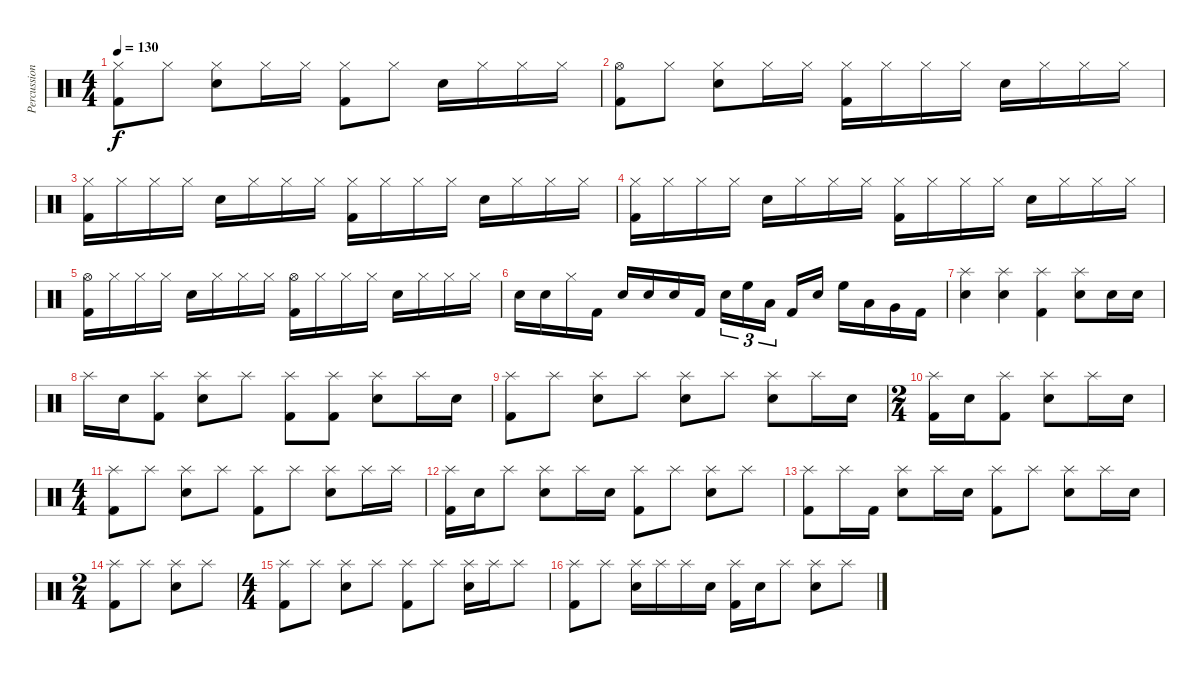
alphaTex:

\track ("Percussion" "Percussion") {instrument percussion}
\staff {score}
\articulation defaults
\ts (4 4)
\tempo 130
\clef neutral
\ks c
("Kick (hit) 2" "Hi-Hat (closed)").8{dy f} "Hi-Hat (closed)".8 ("Snare (hit) 2" "Hi-Hat (closed)").8 "Hi-Hat (closed)".16 "Hi-Hat (closed)".16 ("Kick (hit) 2" "Hi-Hat (closed)").8 "Hi-Hat (closed)".8 "Snare (hit) 2".16 "Hi-Hat (closed)".16 "Hi-Hat (closed)".16 "Hi-Hat (closed)".16 |
("Kick (hit) 2" "Hi-Hat (open)").8 "Hi-Hat (closed)".8 ("Snare (hit) 2" "Hi-Hat (closed)").8 "Hi-Hat (closed)".16 "Hi-Hat (closed)".16 ("Kick (hit) 2" "Hi-Hat (closed)").16 "Hi-Hat (closed)".16 "Hi-Hat (closed)".16 "Hi-Hat (closed)".16 "Snare (hit) 2".16 "Hi-Hat (closed)".16 "Hi-Hat (closed)".16 "Hi-Hat (closed)".16 |
("Kick (hit) 2" "Hi-Hat (closed)").16 "Hi-Hat (closed)".16 "Hi-Hat (closed)".16 "Hi-Hat (closed)".16 "Snare (hit) 2".16 "Hi-Hat (closed)".16 "Hi-Hat (closed)".16 "Hi-Hat (closed)".16 ("Kick (hit) 2" "Hi-Hat (closed)").16 "Hi-Hat (closed)".16 "Hi-Hat (closed)".16 "Hi-Hat (closed)".16 "Snare (hit) 2".16 "Hi-Hat (closed)".16 "Hi-Hat (closed)".16 "Hi-Hat (closed)".16 |
("Kick (hit) 2" "Hi-Hat (closed)").16 "Hi-Hat (closed)".16 "Hi-Hat (closed)".16 "Hi-Hat (closed)".16 "Snare (hit) 2".16 "Hi-Hat (closed)".16 "Hi-Hat (closed)".16 "Hi-Hat (closed)".16 ("Kick (hit) 2" "Hi-Hat (closed)").16 "Hi-Hat (closed)".16 "Hi-Hat (closed)".16 "Hi-Hat (closed)".16 "Snare (hit) 2".16 "Hi-Hat (closed)".16 "Hi-Hat (closed)".16 "Hi-Hat (closed)".16 |
("Kick (hit) 2" "Hi-Hat (open)").16 "Hi-Hat (closed)".16 "Hi-Hat (closed)".16 "Hi-Hat (closed)".16 "Snare (hit) 2".16 "Hi-Hat (closed)".16 "Hi-Hat (closed)".16 "Hi-Hat (closed)".16 ("Kick (hit) 2" "Hi-Hat (open)").16 "Hi-Hat (closed)".16 "Hi-Hat (closed)".16 "Hi-Hat (closed)".16 "Snare (hit) 2".16 "Hi-Hat (closed)".16 "Hi-Hat (closed)".16 "Hi-Hat (closed)".16 |
"Snare (hit) 2".16 "Snare (hit) 2".16 "Hi-Hat (closed)".16 "Kick (hit) 2".16 "Snare (hit) 2".16 "Snare (hit) 2".16 "Snare (hit) 2".16 "Kick (hit) 2".16 "Snare (hit) 2".16{tu (3 2)} "High Floor Tom (hit)".16{tu (3 2)} "Low Tom (hit)".16{tu (3 2) beam splitsecondary} "Kick (hit) 2".16 "Snare (hit) 2".16 "High Floor Tom (hit)".16 "Low Tom (hit)".16 "Very Low Tom (hit)".16 "Kick (hit) 2".16 |
("Snare (hit) 2" "Splash (hit)").4 ("Snare (hit) 2" "Splash (hit)").4 ("Kick (hit) 2" "Splash (hit)").4 ("Snare (hit) 2" "Splash (hit)").8 "Snare (hit) 2".16 "Snare (hit) 2".16 |
"Splash (hit)".16 "Snare (hit) 2".16 ("Kick (hit) 2" "Splash (hit)").8 ("Snare (hit) 2" "Splash (hit)").8 "Splash (hit)".8 ("Kick (hit) 2" "Splash (hit)").8 ("Kick (hit) 2" "Splash (hit)").8 ("Snare (hit) 2" "Splash (hit)").8 "Splash (hit)".16 "Snare (hit) 2".16 |
("Kick (hit) 2" "Splash (hit)").8 "Splash (hit)".8 ("Snare (hit) 2" "Splash (hit)").8 "Splash (hit)".8 ("Snare (hit) 2" "Splash (hit)").8 "Splash (hit)".8 ("Snare (hit) 2" "Splash (hit)").8 "Splash (hit)".16 "Snare (hit) 2".16 |
\ts (2 4)
("Kick (hit) 2" "Splash (hit)").16 "Snare (hit) 2".16 ("Kick (hit) 2" "Splash (hit)").8 ("Snare (hit) 2" "Splash (hit)").8 "Splash (hit)".16 "Snare (hit) 2".16 |
\ts (4 4)
("Kick (hit) 2" "Splash (hit)").8 "Splash (hit)".8 ("Snare (hit) 2" "Splash (hit)").8 "Splash (hit)".8 ("Kick (hit) 2" "Splash (hit)").8 "Splash (hit)".8 ("Snare (hit) 2" "Splash (hit)").8 "Splash (hit)".16 "Splash (hit)".16 |
("Kick (hit) 2" "Splash (hit)").16 "Snare (hit) 2".16 "Splash (hit)".8 ("Snare (hit) 2" "Splash (hit)").8 "Splash (hit)".16 "Snare (hit) 2".16 ("Kick (hit) 2" "Splash (hit)").8 "Splash (hit)".8 ("Snare (hit) 2" "Splash (hit)").8 "Splash (hit)".8 |
("Kick (hit) 2" "Splash (hit)").8 "Splash (hit)".16 "Kick (hit) 2".16 ("Snare (hit) 2" "Splash (hit)").8 "Splash (hit)".16 "Snare (hit) 2".16 ("Kick (hit) 2" "Splash (hit)").8 "Splash (hit)".8 ("Snare (hit) 2" "Splash (hit)").8 "Splash (hit)".16 "Snare (hit) 2".16 |
\ts (2 4)
("Kick (hit) 2" "Splash (hit)").8 "Splash (hit)".8 ("Snare (hit) 2" "Splash (hit)").8 "Splash (hit)".8 |
\ts (4 4)
("Kick (hit) 2" "Splash (hit)").8 "Splash (hit)".8 ("Snare (hit) 2" "Splash (hit)").8 "Splash (hit)".8 ("Kick (hit) 2" "Splash (hit)").8 "Splash (hit)".8 ("Snare (hit) 2" "Splash (hit)").16 "Splash (hit)".16 "Splash (hit)".8 |
("Kick (hit) 2" "Splash (hit)").8 "Splash (hit)".8 ("Snare (hit) 2" "Splash (hit)").16 "Splash (hit)".16 "Splash (hit)".16 "Snare (hit) 2".16 ("Kick (hit) 2" "Splash (hit)").16 "Snare (hit) 2".16 "Splash (hit)".8 ("Snare (hit) 2" "Splash (hit)").8 "Splash (hit)".8
